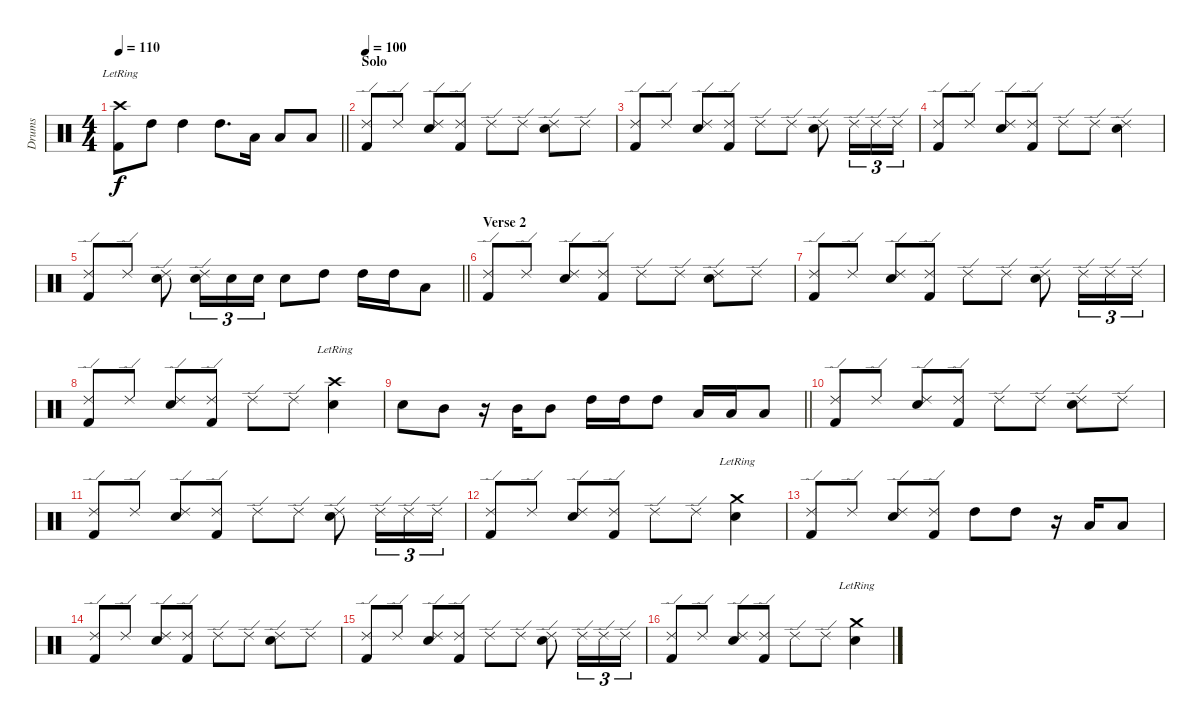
\track ("Drums" "Drums") {instrument percussion}
\staff {score}
\articulation defaults
\ts (4 4)
\tempo 110
\clef neutral
\barLineRight lightlight
\ks c
("Crash high (hit)"{lr} "Kick (hit) 2").8{dy f} "High Tom (hit)".8 "High Tom (hit)".4 "High Tom (hit)".8{d} "Low Tom (hit)".16 "Low Tom (hit)".8 "Low Tom (hit)".8 |
\section ("" "Solo")
\tempo 100
("Ride (edge) 2" "Kick (hit) 2").8 "Ride (edge) 2".8 ("Ride (edge) 2" "Snare (hit) 2").8 ("Ride (edge) 2" "Kick (hit) 2").8 "Ride (edge) 2".8 "Ride (edge) 2".8 ("Ride (edge) 2" "Snare (hit) 2").8 "Ride (edge) 2".8 |
("Ride (edge) 2" "Kick (hit) 2").8 "Ride (edge) 2".8 ("Ride (edge) 2" "Snare (hit) 2").8 ("Ride (edge) 2" "Kick (hit) 2").8 "Ride (edge) 2".8 "Ride (edge) 2".8 ("Ride (edge) 2" "Snare (hit) 2").8 "Ride (edge) 2".16{tu (3 2)} "Ride (edge) 2".16{tu (3 2)} "Ride (edge) 2".16{tu (3 2)} |
("Ride (edge) 2" "Kick (hit) 2").8 "Ride (edge) 2".8 ("Ride (edge) 2" "Snare (hit) 2").8 ("Ride (edge) 2" "Kick (hit) 2").8 "Ride (edge) 2".8 "Ride (edge) 2".8 ("Ride (edge) 2" "Snare (hit) 2").4 |
\barLineRight lightlight
("Ride (edge) 2" "Kick (hit) 2").8 "Ride (edge) 2".8 ("Ride (edge) 2" "Snare (hit) 2").8 ("Ride (edge) 2" "Snare (hit) 2").16{tu (3 2)} "Snare (hit) 2".16{tu (3 2)} "Snare (hit) 2".16{tu (3 2)} "Snare (hit) 2".8 "High Tom (hit)".8 "High Tom (hit)".16 "High Tom (hit)".16 "Low Tom (hit)".8 |
\section ("" "Verse 2")
("Ride (edge) 2" "Kick (hit) 2").8 "Ride (edge) 2".8 ("Ride (edge) 2" "Snare (hit) 2").8 ("Ride (edge) 2" "Kick (hit) 2").8 "Ride (edge) 2".8 "Ride (edge) 2".8 ("Ride (edge) 2" "Snare (hit) 2").8 "Ride (edge) 2".8 |
("Ride (edge) 2" "Kick (hit) 2").8 "Ride (edge) 2".8 ("Ride (edge) 2" "Snare (hit) 2").8 ("Ride (edge) 2" "Kick (hit) 2").8 "Ride (edge) 2".8 "Ride (edge) 2".8 ("Ride (edge) 2" "Snare (hit) 2").8 "Ride (edge) 2".16{tu (3 2)} "Ride (edge) 2".16{tu (3 2)} "Ride (edge) 2".16{tu (3 2)} |
("Ride (edge) 2" "Kick (hit) 2").8 "Ride (edge) 2".8 ("Ride (edge) 2" "Snare (hit) 2").8 ("Ride (edge) 2" "Kick (hit) 2").8 "Ride (edge) 2".8 "Ride (edge) 2".8 ("Crash high (hit)"{lr} "Snare (hit) 2").4 |
\barLineRight lightlight "Snare (hit) 2".8 "Mid Tom (hit)".8
r.16 "Mid Tom (hit)".16 "Mid Tom (hit)".8 "High Tom (hit)".16 "High Tom (hit)".16 "High Tom (hit)".8 "Low Tom (hit)".16 "Low Tom (hit)".16 "Low Tom (hit)".8 |
("Ride (edge) 2" "Kick (hit) 2").8 "Ride (edge) 2".8 ("Ride (edge) 2" "Snare (hit) 2").8 ("Ride (edge) 2" "Kick (hit) 2").8 "Ride (edge) 2".8 "Ride (edge) 2".8 ("Ride (edge) 2" "Snare (hit) 2").8 "Ride (edge) 2".8 |
("Ride (edge) 2" "Kick (hit) 2").8 "Ride (edge) 2".8 ("Ride (edge) 2" "Snare (hit) 2").8 ("Ride (edge) 2" "Kick (hit) 2").8 "Ride (edge) 2".8 "Ride (edge) 2".8 ("Ride (edge) 2" "Snare (hit) 2").8 "Ride (edge) 2".16{tu (3 2)} "Ride (edge) 2".16{tu (3 2)} "Ride (edge) 2".16{tu (3 2)} |
("Ride (edge) 2" "Kick (hit) 2").8 "Ride (edge) 2".8 ("Ride (edge) 2" "Snare (hit) 2").8 ("Ride (edge) 2" "Kick (hit) 2").8 "Ride (edge) 2".8 "Ride (edge) 2".8 ("Crash medium (hit)"{lr} "Snare (hit) 2").4 |
("Ride (edge) 2" "Kick (hit) 2").8 "Ride (edge) 2".8 ("Ride (edge) 2" "Snare (hit) 2").8 ("Ride (edge) 2" "Kick (hit) 2").8 "High Tom (hit)".8 "High Tom (hit)".8 r.16 "Low Tom (hit)".16 "Low Tom (hit)".8 |
("Ride (edge) 2" "Kick (hit) 2").8 "Ride (edge) 2".8 ("Ride (edge) 2" "Snare (hit) 2").8 ("Ride (edge) 2" "Kick (hit) 2").8 "Ride (edge) 2".8 "Ride (edge) 2".8 ("Ride (edge) 2" "Snare (hit) 2").8 "Ride (edge) 2".8 |
("Ride (edge) 2" "Kick (hit) 2").8 "Ride (edge) 2".8 ("Ride (edge) 2" "Snare (hit) 2").8 ("Ride (edge) 2" "Kick (hit) 2").8 "Ride (edge) 2".8 "Ride (edge) 2".8 ("Ride (edge) 2" "Snare (hit) 2").8 "Ride (edge) 2".16{tu (3 2)} "Ride (edge) 2".16{tu (3 2)} "Ride (edge) 2".16{tu (3 2)} |
("Ride (edge) 2" "Kick (hit) 2").8 "Ride (edge) 2".8 ("Ride (edge) 2" "Snare (hit) 2").8 ("Ride (edge) 2" "Kick (hit) 2").8 "Ride (edge) 2".8 "Ride (edge) 2".8 ("Crash medium (hit)"{lr} "Snare (hit) 2").4
